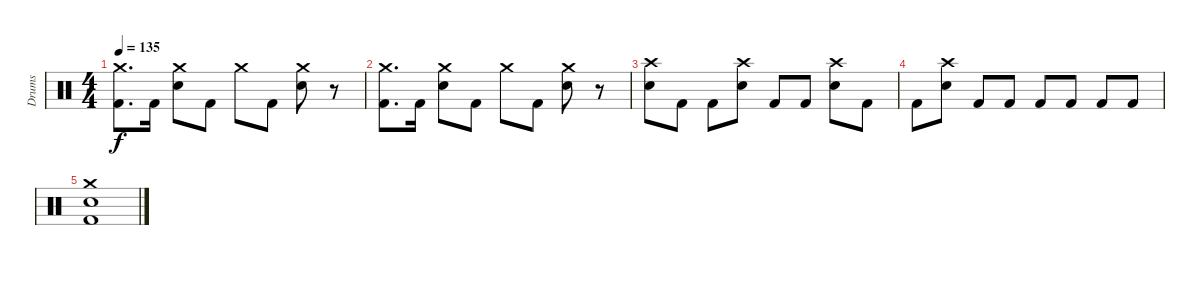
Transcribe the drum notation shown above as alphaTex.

\track ("Drums" "Drums") {instrument percussion}
\staff {score}
\articulation defaults
\ts (4 4)
\tempo 135
\clef neutral
\ks c
("Crash medium (hit)" "Kick (hit) 2").8{d dy f} "Kick (hit) 2".16 ("Crash medium (hit)" "Snare (hit) 2").8 "Kick (hit) 2".8 "Crash medium (hit)".8 "Kick (hit) 2".8 ("Crash medium (hit)" "Snare (hit) 2").8 r.8 |
("Crash medium (hit)" "Kick (hit) 2").8{d} "Kick (hit) 2".16 ("Crash medium (hit)" "Snare (hit) 2").8 "Kick (hit) 2".8 "Crash medium (hit)".8 "Kick (hit) 2".8 ("Crash medium (hit)" "Snare (hit) 2").8 r.8 |
("Crash high (hit)" "Snare (hit) 2").8 "Kick (hit) 2".8 "Kick (hit) 2".8 ("Crash high (hit)" "Snare (hit) 2").8 "Kick (hit) 2".8 "Kick (hit) 2".8 ("Crash high (hit)" "Snare (hit) 2").8 "Kick (hit) 2".8 |
"Kick (hit) 2".8 ("Crash high (hit)" "Snare (hit) 2").8 "Kick (hit) 2".8 "Kick (hit) 2".8 "Kick (hit) 2".8 "Kick (hit) 2".8 "Kick (hit) 2".8 "Kick (hit) 2".8 |
("Crash medium (hit)" "Snare (hit) 2" "Kick (hit) 2").1
